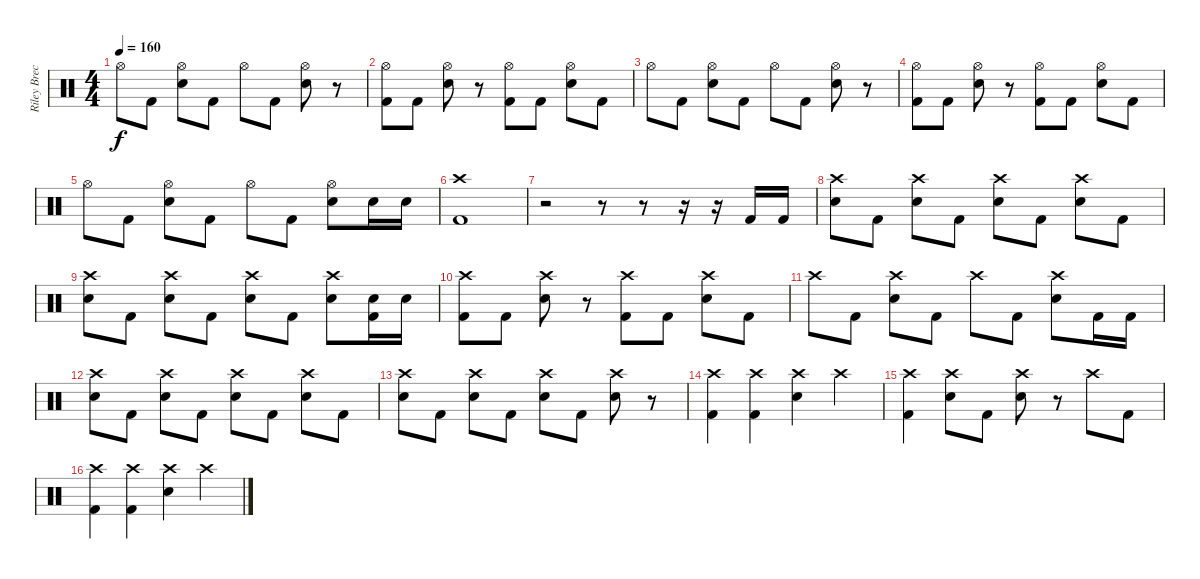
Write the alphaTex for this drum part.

\track ("Riley Breckenridge" "Riley Brec") {instrument percussion}
\staff {score}
\articulation defaults
\ts (4 4)
\tempo 160
\clef neutral
\ks c "Hi-Hat (open)".8{dy f} "Kick (hit) 2".8
("Electric Snare (hit)" "Hi-Hat (open)").8 "Kick (hit) 2".8 "Hi-Hat (open)".8 "Kick (hit) 2".8 ("Electric Snare (hit)" "Hi-Hat (open)").8 r.8 |
("Kick (hit) 2" "Hi-Hat (open)").8 "Kick (hit) 2".8 ("Electric Snare (hit)" "Hi-Hat (open)").8 r.8 ("Kick (hit) 2" "Hi-Hat (open)").8 "Kick (hit) 2".8 ("Electric Snare (hit)" "Hi-Hat (open)").8 "Kick (hit) 2".8 |
"Hi-Hat (open)".8 "Kick (hit) 2".8 ("Electric Snare (hit)" "Hi-Hat (open)").8 "Kick (hit) 2".8 "Hi-Hat (open)".8 "Kick (hit) 2".8 ("Electric Snare (hit)" "Hi-Hat (open)").8 r.8 |
("Kick (hit) 2" "Hi-Hat (open)").8 "Kick (hit) 2".8 ("Electric Snare (hit)" "Hi-Hat (open)").8 r.8 ("Kick (hit) 2" "Hi-Hat (open)").8 "Kick (hit) 2".8 ("Electric Snare (hit)" "Hi-Hat (open)").8 "Kick (hit) 2".8 |
"Hi-Hat (open)".8 "Kick (hit) 2".8 ("Electric Snare (hit)" "Hi-Hat (open)").8 "Kick (hit) 2".8 "Hi-Hat (open)".8 "Kick (hit) 2".8 ("Electric Snare (hit)" "Hi-Hat (open)").8 "Electric Snare (hit)".16 "Electric Snare (hit)".16 |
("Kick (hit) 2" "Crash high (hit)").1 |
r.2 r.8 r.8 r.16 r.16 "Kick (hit) 2".16 "Kick (hit) 2".16 |
("Electric Snare (hit)" "Crash high (hit)").8 "Kick (hit) 2".8 ("Electric Snare (hit)" "Crash high (hit)").8 "Kick (hit) 2".8 ("Electric Snare (hit)" "Crash high (hit)").8 "Kick (hit) 2".8 ("Electric Snare (hit)" "Crash high (hit)").8 "Kick (hit) 2".8 |
("Electric Snare (hit)" "Crash high (hit)").8 "Kick (hit) 2".8 ("Electric Snare (hit)" "Crash high (hit)").8 "Kick (hit) 2".8 ("Electric Snare (hit)" "Crash high (hit)").8 "Kick (hit) 2".8 ("Electric Snare (hit)" "Crash high (hit)").8 ("Kick (hit) 2" "Electric Snare (hit)").16 "Electric Snare (hit)".16 |
("Kick (hit) 2" "Crash high (hit)").8 "Kick (hit) 2".8 ("Electric Snare (hit)" "Crash high (hit)").8 r.8 ("Kick (hit) 2" "Crash high (hit)").8 "Kick (hit) 2".8 ("Electric Snare (hit)" "Crash high (hit)").8 "Kick (hit) 2".8 |
"Crash high (hit)".8 "Kick (hit) 2".8 ("Electric Snare (hit)" "Crash high (hit)").8 "Kick (hit) 2".8 "Crash high (hit)".8 "Kick (hit) 2".8 ("Electric Snare (hit)" "Crash high (hit)").8 "Kick (hit) 2".16 "Kick (hit) 2".16 |
("Electric Snare (hit)" "Crash high (hit)").8 "Kick (hit) 2".8 ("Electric Snare (hit)" "Crash high (hit)").8 "Kick (hit) 2".8 ("Electric Snare (hit)" "Crash high (hit)").8 "Kick (hit) 2".8 ("Electric Snare (hit)" "Crash high (hit)").8 "Kick (hit) 2".8 |
("Electric Snare (hit)" "Crash high (hit)").8 "Kick (hit) 2".8 ("Electric Snare (hit)" "Crash high (hit)").8 "Kick (hit) 2".8 ("Electric Snare (hit)" "Crash high (hit)").8 "Kick (hit) 2".8 ("Electric Snare (hit)" "Crash high (hit)").8 r.8 |
("Kick (hit) 2" "Crash high (hit)").4 ("Kick (hit) 2" "Crash high (hit)").4 ("Electric Snare (hit)" "Crash high (hit)").4 "Crash high (hit)".4 |
("Kick (hit) 2" "Crash high (hit)").4 ("Electric Snare (hit)" "Crash high (hit)").8 "Kick (hit) 2".8 ("Electric Snare (hit)" "Crash high (hit)").8 r.8 "Crash high (hit)".8 "Kick (hit) 2".8 |
("Kick (hit) 2" "Crash high (hit)").4 ("Kick (hit) 2" "Crash high (hit)").4 ("Electric Snare (hit)" "Crash high (hit)").4 "Crash high (hit)".4
